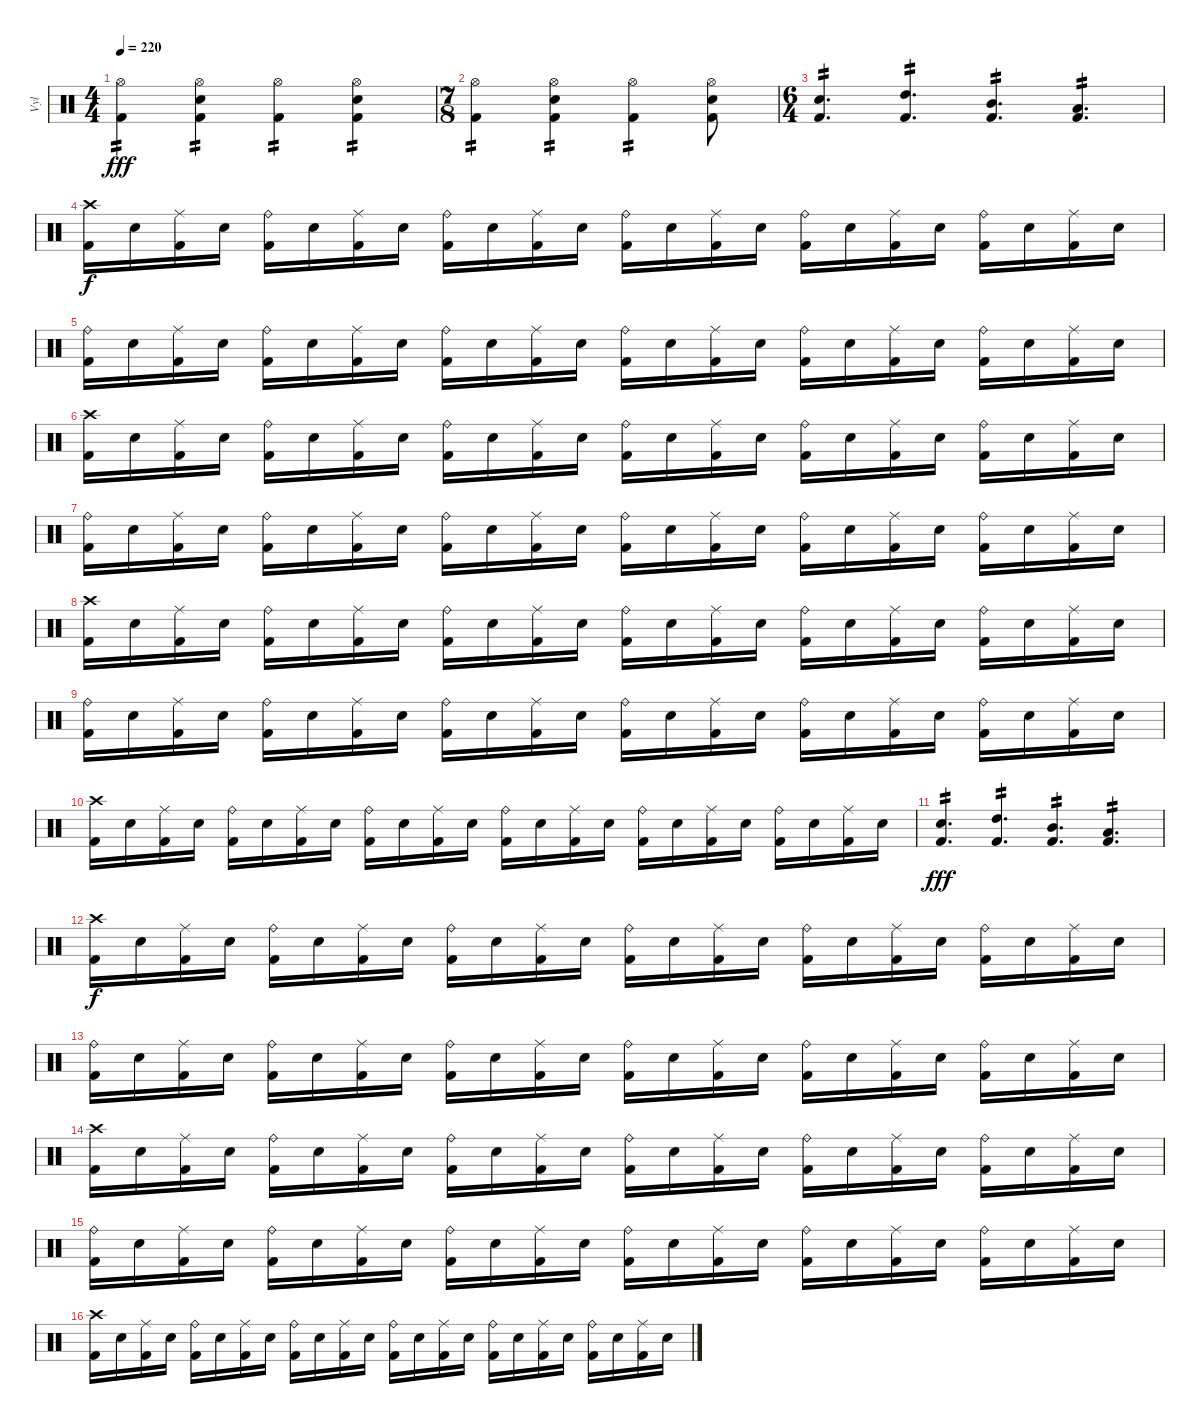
\track ("Vyl" "Vyl") {instrument percussion}
\staff {score}
\articulation defaults
\ts (4 4)
\tempo 220
\clef neutral
\ks c
("Hi-Hat (open)" "Kick (hit) 2").4{tp 2 dy fff} ("Hi-Hat (open)" "Snare (hit) 2" "Kick (hit) 2").4{tp 2} ("Hi-Hat (open)" "Kick (hit) 2").4{tp 2} ("Hi-Hat (open)" "Snare (hit) 2" "Kick (hit) 2").4{tp 2} |
\ts (7 8)
("Hi-Hat (open)" "Kick (hit) 2").4{tp 2} ("Hi-Hat (open)" "Snare (hit) 2" "Kick (hit) 2").4{tp 2} ("Hi-Hat (open)" "Kick (hit) 2").4{tp 2} ("Hi-Hat (open)" "Snare (hit) 2" "Kick (hit) 2").8 |
\ts (6 4)
("Kick (hit) 2" "Snare (hit) 2").4{d tp 2} ("Kick (hit) 2" "High Tom (hit)").4{d tp 2} ("Kick (hit) 2" "Mid Tom (hit)").4{d tp 2} ("Kick (hit) 2" "Low Tom (hit)").4{d tp 2} |
("Crash high (hit)" "Kick (hit) 2").16{dy f} "Snare (hit) 2".16 ("Ride (middle)" "Kick (hit) 2").16 "Snare (hit) 2".16 ("Ride (bell)" "Kick (hit) 2").16 "Snare (hit) 2".16 ("Ride (middle)" "Kick (hit) 2").16 "Snare (hit) 2".16 ("Ride (bell)" "Kick (hit) 2").16 "Snare (hit) 2".16 ("Ride (middle)" "Kick (hit) 2").16 "Snare (hit) 2".16 ("Ride (bell)" "Kick (hit) 2").16 "Snare (hit) 2".16 ("Ride (middle)" "Kick (hit) 2").16 "Snare (hit) 2".16 ("Ride (bell)" "Kick (hit) 2").16 "Snare (hit) 2".16 ("Ride (middle)" "Kick (hit) 2").16 "Snare (hit) 2".16 ("Ride (bell)" "Kick (hit) 2").16 "Snare (hit) 2".16 ("Ride (middle)" "Kick (hit) 2").16 "Snare (hit) 2".16 |
("Ride (bell)" "Kick (hit) 2").16 "Snare (hit) 2".16 ("Ride (middle)" "Kick (hit) 2").16 "Snare (hit) 2".16 ("Ride (bell)" "Kick (hit) 2").16 "Snare (hit) 2".16 ("Ride (middle)" "Kick (hit) 2").16 "Snare (hit) 2".16 ("Ride (bell)" "Kick (hit) 2").16 "Snare (hit) 2".16 ("Ride (middle)" "Kick (hit) 2").16 "Snare (hit) 2".16 ("Ride (bell)" "Kick (hit) 2").16 "Snare (hit) 2".16 ("Ride (middle)" "Kick (hit) 2").16 "Snare (hit) 2".16 ("Ride (bell)" "Kick (hit) 2").16 "Snare (hit) 2".16 ("Ride (middle)" "Kick (hit) 2").16 "Snare (hit) 2".16 ("Ride (bell)" "Kick (hit) 2").16 "Snare (hit) 2".16 ("Ride (middle)" "Kick (hit) 2").16 "Snare (hit) 2".16 |
("Crash high (hit)" "Kick (hit) 2").16 "Snare (hit) 2".16 ("Ride (middle)" "Kick (hit) 2").16 "Snare (hit) 2".16 ("Ride (bell)" "Kick (hit) 2").16 "Snare (hit) 2".16 ("Ride (middle)" "Kick (hit) 2").16 "Snare (hit) 2".16 ("Ride (bell)" "Kick (hit) 2").16 "Snare (hit) 2".16 ("Ride (middle)" "Kick (hit) 2").16 "Snare (hit) 2".16 ("Ride (bell)" "Kick (hit) 2").16 "Snare (hit) 2".16 ("Ride (middle)" "Kick (hit) 2").16 "Snare (hit) 2".16 ("Ride (bell)" "Kick (hit) 2").16 "Snare (hit) 2".16 ("Ride (middle)" "Kick (hit) 2").16 "Snare (hit) 2".16 ("Ride (bell)" "Kick (hit) 2").16 "Snare (hit) 2".16 ("Ride (middle)" "Kick (hit) 2").16 "Snare (hit) 2".16 |
("Ride (bell)" "Kick (hit) 2").16 "Snare (hit) 2".16 ("Ride (middle)" "Kick (hit) 2").16 "Snare (hit) 2".16 ("Ride (bell)" "Kick (hit) 2").16 "Snare (hit) 2".16 ("Ride (middle)" "Kick (hit) 2").16 "Snare (hit) 2".16 ("Ride (bell)" "Kick (hit) 2").16 "Snare (hit) 2".16 ("Ride (middle)" "Kick (hit) 2").16 "Snare (hit) 2".16 ("Ride (bell)" "Kick (hit) 2").16 "Snare (hit) 2".16 ("Ride (middle)" "Kick (hit) 2").16 "Snare (hit) 2".16 ("Ride (bell)" "Kick (hit) 2").16 "Snare (hit) 2".16 ("Ride (middle)" "Kick (hit) 2").16 "Snare (hit) 2".16 ("Ride (bell)" "Kick (hit) 2").16 "Snare (hit) 2".16 ("Ride (middle)" "Kick (hit) 2").16 "Snare (hit) 2".16 |
("Crash high (hit)" "Kick (hit) 2").16 "Snare (hit) 2".16 ("Ride (middle)" "Kick (hit) 2").16 "Snare (hit) 2".16 ("Ride (bell)" "Kick (hit) 2").16 "Snare (hit) 2".16 ("Ride (middle)" "Kick (hit) 2").16 "Snare (hit) 2".16 ("Ride (bell)" "Kick (hit) 2").16 "Snare (hit) 2".16 ("Ride (middle)" "Kick (hit) 2").16 "Snare (hit) 2".16 ("Ride (bell)" "Kick (hit) 2").16 "Snare (hit) 2".16 ("Ride (middle)" "Kick (hit) 2").16 "Snare (hit) 2".16 ("Ride (bell)" "Kick (hit) 2").16 "Snare (hit) 2".16 ("Ride (middle)" "Kick (hit) 2").16 "Snare (hit) 2".16 ("Ride (bell)" "Kick (hit) 2").16 "Snare (hit) 2".16 ("Ride (middle)" "Kick (hit) 2").16 "Snare (hit) 2".16 |
("Ride (bell)" "Kick (hit) 2").16 "Snare (hit) 2".16 ("Ride (middle)" "Kick (hit) 2").16 "Snare (hit) 2".16 ("Ride (bell)" "Kick (hit) 2").16 "Snare (hit) 2".16 ("Ride (middle)" "Kick (hit) 2").16 "Snare (hit) 2".16 ("Ride (bell)" "Kick (hit) 2").16 "Snare (hit) 2".16 ("Ride (middle)" "Kick (hit) 2").16 "Snare (hit) 2".16 ("Ride (bell)" "Kick (hit) 2").16 "Snare (hit) 2".16 ("Ride (middle)" "Kick (hit) 2").16 "Snare (hit) 2".16 ("Ride (bell)" "Kick (hit) 2").16 "Snare (hit) 2".16 ("Ride (middle)" "Kick (hit) 2").16 "Snare (hit) 2".16 ("Ride (bell)" "Kick (hit) 2").16 "Snare (hit) 2".16 ("Ride (middle)" "Kick (hit) 2").16 "Snare (hit) 2".16 |
("Crash high (hit)" "Kick (hit) 2").16 "Snare (hit) 2".16 ("Ride (middle)" "Kick (hit) 2").16 "Snare (hit) 2".16 ("Ride (bell)" "Kick (hit) 2").16 "Snare (hit) 2".16 ("Ride (middle)" "Kick (hit) 2").16 "Snare (hit) 2".16 ("Ride (bell)" "Kick (hit) 2").16 "Snare (hit) 2".16 ("Ride (middle)" "Kick (hit) 2").16 "Snare (hit) 2".16 ("Ride (bell)" "Kick (hit) 2").16 "Snare (hit) 2".16 ("Ride (middle)" "Kick (hit) 2").16 "Snare (hit) 2".16 ("Ride (bell)" "Kick (hit) 2").16 "Snare (hit) 2".16 ("Ride (middle)" "Kick (hit) 2").16 "Snare (hit) 2".16 ("Ride (bell)" "Kick (hit) 2").16 "Snare (hit) 2".16 ("Ride (middle)" "Kick (hit) 2").16 "Snare (hit) 2".16 |
("Kick (hit) 2" "Snare (hit) 2").4{d tp 2 dy fff} ("Kick (hit) 2" "High Tom (hit)").4{d tp 2} ("Kick (hit) 2" "Mid Tom (hit)").4{d tp 2} ("Kick (hit) 2" "Low Tom (hit)").4{d tp 2} |
("Crash high (hit)" "Kick (hit) 2").16{dy f} "Snare (hit) 2".16 ("Ride (middle)" "Kick (hit) 2").16 "Snare (hit) 2".16 ("Ride (bell)" "Kick (hit) 2").16 "Snare (hit) 2".16 ("Ride (middle)" "Kick (hit) 2").16 "Snare (hit) 2".16 ("Ride (bell)" "Kick (hit) 2").16 "Snare (hit) 2".16 ("Ride (middle)" "Kick (hit) 2").16 "Snare (hit) 2".16 ("Ride (bell)" "Kick (hit) 2").16 "Snare (hit) 2".16 ("Ride (middle)" "Kick (hit) 2").16 "Snare (hit) 2".16 ("Ride (bell)" "Kick (hit) 2").16 "Snare (hit) 2".16 ("Ride (middle)" "Kick (hit) 2").16 "Snare (hit) 2".16 ("Ride (bell)" "Kick (hit) 2").16 "Snare (hit) 2".16 ("Ride (middle)" "Kick (hit) 2").16 "Snare (hit) 2".16 |
("Ride (bell)" "Kick (hit) 2").16 "Snare (hit) 2".16 ("Ride (middle)" "Kick (hit) 2").16 "Snare (hit) 2".16 ("Ride (bell)" "Kick (hit) 2").16 "Snare (hit) 2".16 ("Ride (middle)" "Kick (hit) 2").16 "Snare (hit) 2".16 ("Ride (bell)" "Kick (hit) 2").16 "Snare (hit) 2".16 ("Ride (middle)" "Kick (hit) 2").16 "Snare (hit) 2".16 ("Ride (bell)" "Kick (hit) 2").16 "Snare (hit) 2".16 ("Ride (middle)" "Kick (hit) 2").16 "Snare (hit) 2".16 ("Ride (bell)" "Kick (hit) 2").16 "Snare (hit) 2".16 ("Ride (middle)" "Kick (hit) 2").16 "Snare (hit) 2".16 ("Ride (bell)" "Kick (hit) 2").16 "Snare (hit) 2".16 ("Ride (middle)" "Kick (hit) 2").16 "Snare (hit) 2".16 |
("Crash high (hit)" "Kick (hit) 2").16 "Snare (hit) 2".16 ("Ride (middle)" "Kick (hit) 2").16 "Snare (hit) 2".16 ("Ride (bell)" "Kick (hit) 2").16 "Snare (hit) 2".16 ("Ride (middle)" "Kick (hit) 2").16 "Snare (hit) 2".16 ("Ride (bell)" "Kick (hit) 2").16 "Snare (hit) 2".16 ("Ride (middle)" "Kick (hit) 2").16 "Snare (hit) 2".16 ("Ride (bell)" "Kick (hit) 2").16 "Snare (hit) 2".16 ("Ride (middle)" "Kick (hit) 2").16 "Snare (hit) 2".16 ("Ride (bell)" "Kick (hit) 2").16 "Snare (hit) 2".16 ("Ride (middle)" "Kick (hit) 2").16 "Snare (hit) 2".16 ("Ride (bell)" "Kick (hit) 2").16 "Snare (hit) 2".16 ("Ride (middle)" "Kick (hit) 2").16 "Snare (hit) 2".16 |
("Ride (bell)" "Kick (hit) 2").16 "Snare (hit) 2".16 ("Ride (middle)" "Kick (hit) 2").16 "Snare (hit) 2".16 ("Ride (bell)" "Kick (hit) 2").16 "Snare (hit) 2".16 ("Ride (middle)" "Kick (hit) 2").16 "Snare (hit) 2".16 ("Ride (bell)" "Kick (hit) 2").16 "Snare (hit) 2".16 ("Ride (middle)" "Kick (hit) 2").16 "Snare (hit) 2".16 ("Ride (bell)" "Kick (hit) 2").16 "Snare (hit) 2".16 ("Ride (middle)" "Kick (hit) 2").16 "Snare (hit) 2".16 ("Ride (bell)" "Kick (hit) 2").16 "Snare (hit) 2".16 ("Ride (middle)" "Kick (hit) 2").16 "Snare (hit) 2".16 ("Ride (bell)" "Kick (hit) 2").16 "Snare (hit) 2".16 ("Ride (middle)" "Kick (hit) 2").16 "Snare (hit) 2".16 |
("Crash high (hit)" "Kick (hit) 2").16 "Snare (hit) 2".16 ("Ride (middle)" "Kick (hit) 2").16 "Snare (hit) 2".16 ("Ride (bell)" "Kick (hit) 2").16 "Snare (hit) 2".16 ("Ride (middle)" "Kick (hit) 2").16 "Snare (hit) 2".16 ("Ride (bell)" "Kick (hit) 2").16 "Snare (hit) 2".16 ("Ride (middle)" "Kick (hit) 2").16 "Snare (hit) 2".16 ("Ride (bell)" "Kick (hit) 2").16 "Snare (hit) 2".16 ("Ride (middle)" "Kick (hit) 2").16 "Snare (hit) 2".16 ("Ride (bell)" "Kick (hit) 2").16 "Snare (hit) 2".16 ("Ride (middle)" "Kick (hit) 2").16 "Snare (hit) 2".16 ("Ride (bell)" "Kick (hit) 2").16 "Snare (hit) 2".16 ("Ride (middle)" "Kick (hit) 2").16 "Snare (hit) 2".16
